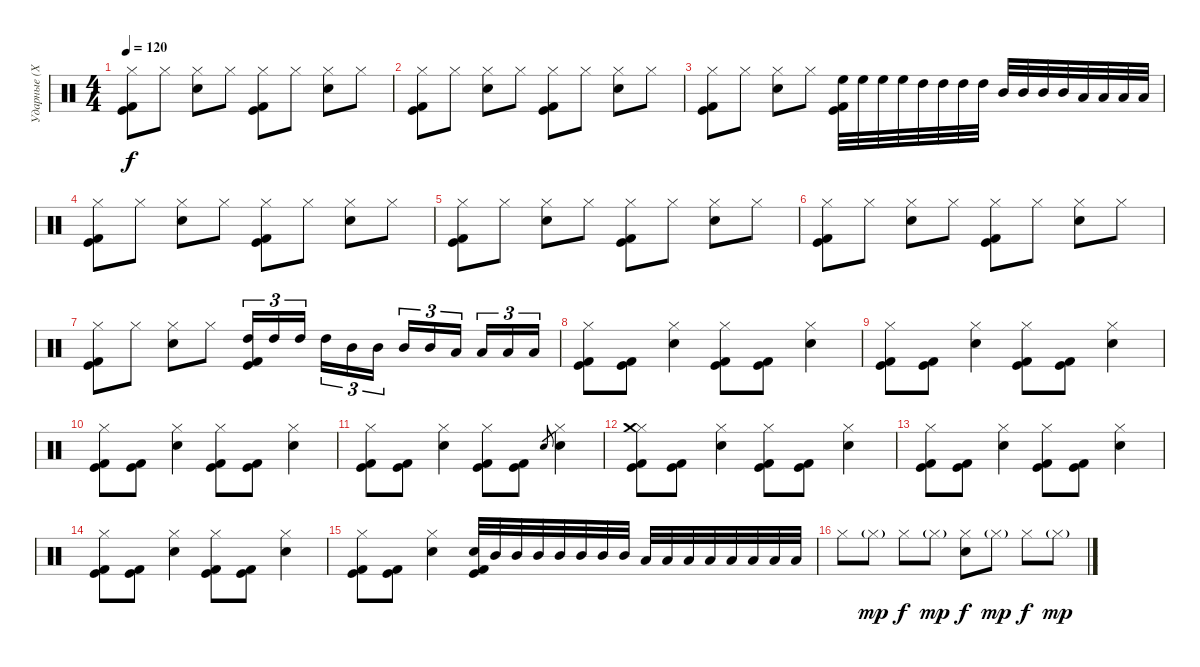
\track ("Ударные (Хеллхаммер)" "Ударные (Х") {instrument percussion}
\staff {score}
\articulation defaults
\ts (4 4)
\tempo 120
\clef neutral
\ks c
("Hi-Hat (closed)" "Kick (hit) 2" "Kick (hit)").8{dy f} "Hi-Hat (closed)".8 ("Hi-Hat (closed)" "Electric Snare (hit)").8 "Hi-Hat (closed)".8 ("Hi-Hat (closed)" "Kick (hit) 2" "Kick (hit)").8 "Hi-Hat (closed)".8 ("Hi-Hat (closed)" "Electric Snare (hit)").8 "Hi-Hat (closed)".8 |
("Hi-Hat (closed)" "Kick (hit) 2" "Kick (hit)").8 "Hi-Hat (closed)".8 ("Hi-Hat (closed)" "Electric Snare (hit)").8 "Hi-Hat (closed)".8 ("Hi-Hat (closed)" "Kick (hit) 2" "Kick (hit)").8 "Hi-Hat (closed)".8 ("Hi-Hat (closed)" "Electric Snare (hit)").8 "Hi-Hat (closed)".8 |
("Hi-Hat (closed)" "Kick (hit) 2" "Kick (hit)").8 "Hi-Hat (closed)".8 ("Hi-Hat (closed)" "Electric Snare (hit)").8 "Hi-Hat (closed)".8 ("High Floor Tom (hit)" "Kick (hit) 2" "Kick (hit)").32 "High Floor Tom (hit)".32 "High Floor Tom (hit)".32 "High Floor Tom (hit)".32 "High Tom (hit)".32 "High Tom (hit)".32 "High Tom (hit)".32 "High Tom (hit)".32 "Mid Tom (hit)".32 "Mid Tom (hit)".32 "Mid Tom (hit)".32 "Mid Tom (hit)".32 "Low Tom (hit)".32 "Low Tom (hit)".32 "Low Tom (hit)".32 "Low Tom (hit)".32 |
("Hi-Hat (closed)" "Kick (hit) 2" "Kick (hit)").8 "Hi-Hat (closed)".8 ("Hi-Hat (closed)" "Electric Snare (hit)").8 "Hi-Hat (closed)".8 ("Hi-Hat (closed)" "Kick (hit) 2" "Kick (hit)").8 "Hi-Hat (closed)".8 ("Hi-Hat (closed)" "Electric Snare (hit)").8 "Hi-Hat (closed)".8 |
("Hi-Hat (closed)" "Kick (hit) 2" "Kick (hit)").8 "Hi-Hat (closed)".8 ("Hi-Hat (closed)" "Electric Snare (hit)").8 "Hi-Hat (closed)".8 ("Hi-Hat (closed)" "Kick (hit) 2" "Kick (hit)").8 "Hi-Hat (closed)".8 ("Hi-Hat (closed)" "Electric Snare (hit)").8 "Hi-Hat (closed)".8 |
("Hi-Hat (closed)" "Kick (hit) 2" "Kick (hit)").8 "Hi-Hat (closed)".8 ("Hi-Hat (closed)" "Electric Snare (hit)").8 "Hi-Hat (closed)".8 ("Hi-Hat (closed)" "Kick (hit) 2" "Kick (hit)").8 "Hi-Hat (closed)".8 ("Hi-Hat (closed)" "Electric Snare (hit)").8 "Hi-Hat (closed)".8 |
("Hi-Hat (closed)" "Kick (hit) 2" "Kick (hit)").8 "Hi-Hat (closed)".8 ("Hi-Hat (closed)" "Electric Snare (hit)").8 "Hi-Hat (closed)".8 ("High Tom (hit)" "Kick (hit) 2" "Kick (hit)").16{tu (3 2)} "High Tom (hit)".16{tu (3 2)} "High Tom (hit)".16{tu (3 2) beam splitsecondary} "High Tom (hit)".16{tu (3 2)} "Mid Tom (hit)".16{tu (3 2)} "Mid Tom (hit)".16{tu (3 2)} "Mid Tom (hit)".16{tu (3 2)} "Mid Tom (hit)".16{tu (3 2)} "Low Tom (hit)".16{tu (3 2) beam splitsecondary} "Low Tom (hit)".16{tu (3 2)} "Low Tom (hit)".16{tu (3 2)} "Low Tom (hit)".16{tu (3 2)} |
("Hi-Hat (closed)" "Kick (hit) 2" "Kick (hit)").8 ("Kick (hit) 2" "Kick (hit)").8 ("Hi-Hat (closed)" "Electric Snare (hit)").4 ("Hi-Hat (closed)" "Kick (hit) 2" "Kick (hit)").8 ("Kick (hit) 2" "Kick (hit)").8 ("Hi-Hat (closed)" "Electric Snare (hit)").4 |
("Hi-Hat (closed)" "Kick (hit) 2" "Kick (hit)").8 ("Kick (hit) 2" "Kick (hit)").8 ("Hi-Hat (closed)" "Electric Snare (hit)").4 ("Hi-Hat (closed)" "Kick (hit) 2" "Kick (hit)").8 ("Kick (hit) 2" "Kick (hit)").8 ("Hi-Hat (closed)" "Electric Snare (hit)").4 |
("Hi-Hat (closed)" "Kick (hit) 2" "Kick (hit)").8 ("Kick (hit) 2" "Kick (hit)").8 ("Hi-Hat (closed)" "Electric Snare (hit)").4 ("Hi-Hat (closed)" "Kick (hit) 2" "Kick (hit)").8 ("Kick (hit) 2" "Kick (hit)").8 ("Hi-Hat (closed)" "Electric Snare (hit)").4 |
("Hi-Hat (closed)" "Kick (hit) 2" "Kick (hit)").8 ("Kick (hit) 2" "Kick (hit)").8 ("Hi-Hat (closed)" "Electric Snare (hit)").4 ("Hi-Hat (closed)" "Kick (hit) 2" "Kick (hit)").8 ("Kick (hit) 2" "Kick (hit)").8 "Electric Snare (hit)".8{gr} ("Hi-Hat (closed)" "Electric Snare (hit)").4 |
("Hi-Hat (closed)" "Crash medium (hit)" "Kick (hit) 2" "Kick (hit)").8 ("Kick (hit) 2" "Kick (hit)").8 ("Hi-Hat (closed)" "Electric Snare (hit)").4 ("Hi-Hat (closed)" "Kick (hit) 2" "Kick (hit)").8 ("Kick (hit) 2" "Kick (hit)").8 ("Hi-Hat (closed)" "Electric Snare (hit)").4 |
("Hi-Hat (closed)" "Kick (hit) 2" "Kick (hit)").8 ("Kick (hit) 2" "Kick (hit)").8 ("Hi-Hat (closed)" "Electric Snare (hit)").4 ("Hi-Hat (closed)" "Kick (hit) 2" "Kick (hit)").8 ("Kick (hit) 2" "Kick (hit)").8 ("Hi-Hat (closed)" "Electric Snare (hit)").4 |
("Hi-Hat (closed)" "Kick (hit) 2" "Kick (hit)").8 ("Kick (hit) 2" "Kick (hit)").8 ("Hi-Hat (closed)" "Electric Snare (hit)").4 ("Hi-Hat (closed)" "Kick (hit) 2" "Kick (hit)").8 ("Kick (hit) 2" "Kick (hit)").8 ("Hi-Hat (closed)" "Electric Snare (hit)").4 |
("Hi-Hat (closed)" "Kick (hit) 2" "Kick (hit)").8 ("Kick (hit) 2" "Kick (hit)").8 ("Hi-Hat (closed)" "Electric Snare (hit)").4 ("Electric Snare (hit)" "Kick (hit) 2" "Kick (hit)").32 "Mid Tom (hit)".32 "Mid Tom (hit)".32 "Mid Tom (hit)".32 "Mid Tom (hit)".32 "Mid Tom (hit)".32 "Mid Tom (hit)".32 "Mid Tom (hit)".32 "Low Tom (hit)".32 "Low Tom (hit)".32 "Low Tom (hit)".32 "Low Tom (hit)".32 "Low Tom (hit)".32 "Low Tom (hit)".32 "Low Tom (hit)".32 "Low Tom (hit)".32 |
"Hi-Hat (closed)".8 "Hi-Hat (closed)"{g}.8{dy mp} "Hi-Hat (closed)".8{dy f} "Hi-Hat (closed)"{g}.8{dy mp} ("Hi-Hat (closed)" "Electric Snare (hit)").8{dy f} "Hi-Hat (closed)"{g}.8{dy mp} "Hi-Hat (closed)".8{dy f} "Hi-Hat (closed)"{g}.8{dy mp}
